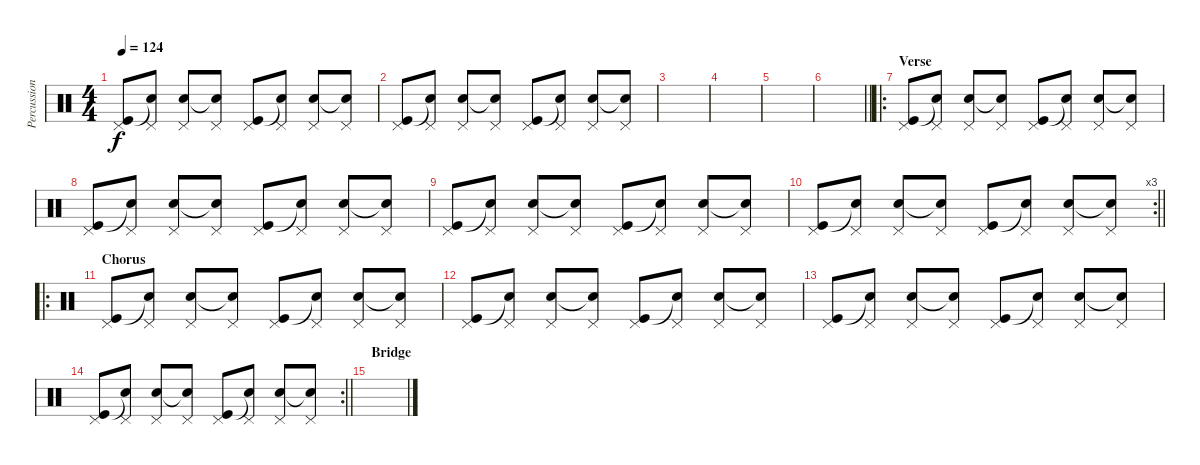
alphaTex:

\track ("Percussion" "Percussion") {instrument percussion}
\staff {score}
\articulation defaults
\ts (4 4)
\tempo 124
\clef neutral
\ks c
("Kick (hit)" "Pedal Hi-Hat (hit)").8{dy f} ("Snare (hit)"{t} "Pedal Hi-Hat (hit)").8 ("Snare (hit) 2" "Pedal Hi-Hat (hit)").8 ("Snare (hit)"{t} "Pedal Hi-Hat (hit)").8 ("Kick (hit)" "Pedal Hi-Hat (hit)").8 ("Snare (hit)"{t} "Pedal Hi-Hat (hit)").8 ("Snare (hit) 2" "Pedal Hi-Hat (hit)").8 ("Snare (hit)"{t} "Pedal Hi-Hat (hit)").8 |
("Kick (hit)" "Pedal Hi-Hat (hit)").8 ("Snare (hit)"{t} "Pedal Hi-Hat (hit)").8 ("Snare (hit) 2" "Pedal Hi-Hat (hit)").8 ("Snare (hit)"{t} "Pedal Hi-Hat (hit)").8 ("Kick (hit)" "Pedal Hi-Hat (hit)").8 ("Snare (hit)"{t} "Pedal Hi-Hat (hit)").8 ("Snare (hit) 2" "Pedal Hi-Hat (hit)").8 ("Snare (hit)"{t} "Pedal Hi-Hat (hit)").8 |
|
|
|
\barLineRight lightlight
|
\ro
\section ("" "Verse")
("Kick (hit)" "Pedal Hi-Hat (hit)").8 ("Snare (hit)"{t} "Pedal Hi-Hat (hit)").8 ("Snare (hit) 2" "Pedal Hi-Hat (hit)").8 ("Snare (hit)"{t} "Pedal Hi-Hat (hit)").8 ("Kick (hit)" "Pedal Hi-Hat (hit)").8 ("Snare (hit)"{t} "Pedal Hi-Hat (hit)").8 ("Snare (hit) 2" "Pedal Hi-Hat (hit)").8 ("Snare (hit)"{t} "Pedal Hi-Hat (hit)").8 |
("Kick (hit)" "Pedal Hi-Hat (hit)").8 ("Snare (hit)"{t} "Pedal Hi-Hat (hit)").8 ("Snare (hit) 2" "Pedal Hi-Hat (hit)").8 ("Snare (hit)"{t} "Pedal Hi-Hat (hit)").8 ("Kick (hit)" "Pedal Hi-Hat (hit)").8 ("Snare (hit)"{t} "Pedal Hi-Hat (hit)").8 ("Snare (hit) 2" "Pedal Hi-Hat (hit)").8 ("Snare (hit)"{t} "Pedal Hi-Hat (hit)").8 |
("Kick (hit)" "Pedal Hi-Hat (hit)").8 ("Snare (hit)"{t} "Pedal Hi-Hat (hit)").8 ("Snare (hit) 2" "Pedal Hi-Hat (hit)").8 ("Snare (hit)"{t} "Pedal Hi-Hat (hit)").8 ("Kick (hit)" "Pedal Hi-Hat (hit)").8 ("Snare (hit)"{t} "Pedal Hi-Hat (hit)").8 ("Snare (hit) 2" "Pedal Hi-Hat (hit)").8 ("Snare (hit)"{t} "Pedal Hi-Hat (hit)").8 |
\rc 3
\barLineRight lightlight
("Kick (hit)" "Pedal Hi-Hat (hit)").8 ("Snare (hit)"{t} "Pedal Hi-Hat (hit)").8 ("Snare (hit) 2" "Pedal Hi-Hat (hit)").8 ("Snare (hit)"{t} "Pedal Hi-Hat (hit)").8 ("Kick (hit)" "Pedal Hi-Hat (hit)").8 ("Snare (hit)"{t} "Pedal Hi-Hat (hit)").8 ("Snare (hit) 2" "Pedal Hi-Hat (hit)").8 ("Snare (hit)"{t} "Pedal Hi-Hat (hit)").8 |
\ro
\section ("" "Chorus")
("Kick (hit)" "Pedal Hi-Hat (hit)").8 ("Snare (hit)"{t} "Pedal Hi-Hat (hit)").8 ("Snare (hit) 2" "Pedal Hi-Hat (hit)").8 ("Snare (hit)"{t} "Pedal Hi-Hat (hit)").8 ("Kick (hit)" "Pedal Hi-Hat (hit)").8 ("Snare (hit)"{t} "Pedal Hi-Hat (hit)").8 ("Snare (hit) 2" "Pedal Hi-Hat (hit)").8 ("Snare (hit)"{t} "Pedal Hi-Hat (hit)").8 |
("Kick (hit)" "Pedal Hi-Hat (hit)").8 ("Snare (hit)"{t} "Pedal Hi-Hat (hit)").8 ("Snare (hit) 2" "Pedal Hi-Hat (hit)").8 ("Snare (hit)"{t} "Pedal Hi-Hat (hit)").8 ("Kick (hit)" "Pedal Hi-Hat (hit)").8 ("Snare (hit)"{t} "Pedal Hi-Hat (hit)").8 ("Snare (hit) 2" "Pedal Hi-Hat (hit)").8 ("Snare (hit)"{t} "Pedal Hi-Hat (hit)").8 |
("Kick (hit)" "Pedal Hi-Hat (hit)").8 ("Snare (hit)"{t} "Pedal Hi-Hat (hit)").8 ("Snare (hit) 2" "Pedal Hi-Hat (hit)").8 ("Snare (hit)"{t} "Pedal Hi-Hat (hit)").8 ("Kick (hit)" "Pedal Hi-Hat (hit)").8 ("Snare (hit)"{t} "Pedal Hi-Hat (hit)").8 ("Snare (hit) 2" "Pedal Hi-Hat (hit)").8 ("Snare (hit)"{t} "Pedal Hi-Hat (hit)").8 |
\rc 2
\barLineRight lightlight
("Kick (hit)" "Pedal Hi-Hat (hit)").8 ("Snare (hit)"{t} "Pedal Hi-Hat (hit)").8 ("Snare (hit) 2" "Pedal Hi-Hat (hit)").8 ("Snare (hit)"{t} "Pedal Hi-Hat (hit)").8 ("Kick (hit)" "Pedal Hi-Hat (hit)").8 ("Snare (hit)"{t} "Pedal Hi-Hat (hit)").8 ("Snare (hit) 2" "Pedal Hi-Hat (hit)").8 ("Snare (hit)"{t} "Pedal Hi-Hat (hit)").8 |
\section ("" "Bridge")
